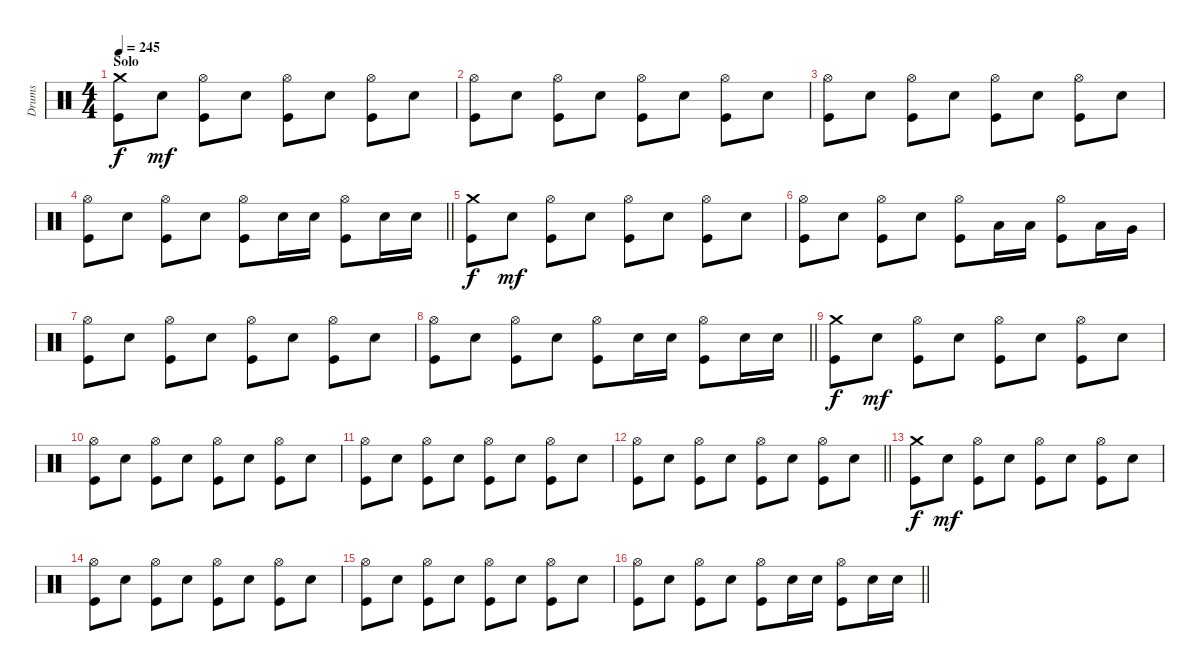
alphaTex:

\track ("Drums" "Drums") {instrument percussion}
\staff {score}
\articulation defaults
\ts (4 4)
\section ("" "Solo")
\tempo 245
\clef neutral
\ks c
("Crash medium (hit)" "Kick (hit)").8{dy f} "Snare (hit) 2".8{dy mf} ("Hi-Hat (open)" "Kick (hit)").8 "Snare (hit) 2".8 ("Hi-Hat (open)" "Kick (hit)").8 "Snare (hit) 2".8 ("Hi-Hat (open)" "Kick (hit)").8 "Snare (hit) 2".8 |
("Hi-Hat (open)" "Kick (hit)").8 "Snare (hit) 2".8 ("Hi-Hat (open)" "Kick (hit)").8 "Snare (hit) 2".8 ("Hi-Hat (open)" "Kick (hit)").8 "Snare (hit) 2".8 ("Hi-Hat (open)" "Kick (hit)").8 "Snare (hit) 2".8 |
("Hi-Hat (open)" "Kick (hit)").8 "Snare (hit) 2".8 ("Hi-Hat (open)" "Kick (hit)").8 "Snare (hit) 2".8 ("Hi-Hat (open)" "Kick (hit)").8 "Snare (hit) 2".8 ("Hi-Hat (open)" "Kick (hit)").8 "Snare (hit) 2".8 |
\barLineRight lightlight
("Hi-Hat (open)" "Kick (hit)").8 "Snare (hit) 2".8 ("Hi-Hat (open)" "Kick (hit)").8 "Snare (hit) 2".8 ("Hi-Hat (open)" "Kick (hit)").8 "Snare (hit) 2".16 "Snare (hit) 2".16 ("Hi-Hat (open)" "Kick (hit)").8 "Snare (hit) 2".16 "Snare (hit) 2".16 |
("Crash medium (hit)" "Kick (hit)").8{dy f} "Snare (hit) 2".8{dy mf} ("Hi-Hat (open)" "Kick (hit)").8 "Snare (hit) 2".8 ("Hi-Hat (open)" "Kick (hit)").8 "Snare (hit) 2".8 ("Hi-Hat (open)" "Kick (hit)").8 "Snare (hit) 2".8 |
("Hi-Hat (open)" "Kick (hit)").8 "Snare (hit) 2".8 ("Hi-Hat (open)" "Kick (hit)").8 "Snare (hit) 2".8 ("Hi-Hat (open)" "Kick (hit)").8 "Low Tom (hit)".16 "Low Tom (hit)".16 ("Hi-Hat (open)" "Kick (hit)").8 "Low Tom (hit)".16 "Very Low Tom (hit)".16 |
("Hi-Hat (open)" "Kick (hit)").8 "Snare (hit) 2".8 ("Hi-Hat (open)" "Kick (hit)").8 "Snare (hit) 2".8 ("Hi-Hat (open)" "Kick (hit)").8 "Snare (hit) 2".8 ("Hi-Hat (open)" "Kick (hit)").8 "Snare (hit) 2".8 |
\barLineRight lightlight
("Hi-Hat (open)" "Kick (hit)").8 "Snare (hit) 2".8 ("Hi-Hat (open)" "Kick (hit)").8 "Snare (hit) 2".8 ("Hi-Hat (open)" "Kick (hit)").8 "Snare (hit) 2".16 "Snare (hit) 2".16 ("Hi-Hat (open)" "Kick (hit)").8 "Snare (hit) 2".16 "Snare (hit) 2".16 |
("Crash medium (hit)" "Kick (hit)").8{dy f} "Snare (hit) 2".8{dy mf} ("Hi-Hat (open)" "Kick (hit)").8 "Snare (hit) 2".8 ("Hi-Hat (open)" "Kick (hit)").8 "Snare (hit) 2".8 ("Hi-Hat (open)" "Kick (hit)").8 "Snare (hit) 2".8 |
("Hi-Hat (open)" "Kick (hit)").8 "Snare (hit) 2".8 ("Hi-Hat (open)" "Kick (hit)").8 "Snare (hit) 2".8 ("Hi-Hat (open)" "Kick (hit)").8 "Snare (hit) 2".8 ("Hi-Hat (open)" "Kick (hit)").8 "Snare (hit) 2".8 |
("Hi-Hat (open)" "Kick (hit)").8 "Snare (hit) 2".8 ("Hi-Hat (open)" "Kick (hit)").8 "Snare (hit) 2".8 ("Hi-Hat (open)" "Kick (hit)").8 "Snare (hit) 2".8 ("Hi-Hat (open)" "Kick (hit)").8 "Snare (hit) 2".8 |
\barLineRight lightlight
("Hi-Hat (open)" "Kick (hit)").8 "Snare (hit) 2".8 ("Hi-Hat (open)" "Kick (hit)").8 "Snare (hit) 2".8 ("Hi-Hat (open)" "Kick (hit)").8 "Snare (hit) 2".8 ("Hi-Hat (open)" "Kick (hit)").8 "Snare (hit) 2".8 |
("Crash medium (hit)" "Kick (hit)").8{dy f} "Snare (hit) 2".8{dy mf} ("Hi-Hat (open)" "Kick (hit)").8 "Snare (hit) 2".8 ("Hi-Hat (open)" "Kick (hit)").8 "Snare (hit) 2".8 ("Hi-Hat (open)" "Kick (hit)").8 "Snare (hit) 2".8 |
("Hi-Hat (open)" "Kick (hit)").8 "Snare (hit) 2".8 ("Hi-Hat (open)" "Kick (hit)").8 "Snare (hit) 2".8 ("Hi-Hat (open)" "Kick (hit)").8 "Snare (hit) 2".8 ("Hi-Hat (open)" "Kick (hit)").8 "Snare (hit) 2".8 |
("Hi-Hat (open)" "Kick (hit)").8 "Snare (hit) 2".8 ("Hi-Hat (open)" "Kick (hit)").8 "Snare (hit) 2".8 ("Hi-Hat (open)" "Kick (hit)").8 "Snare (hit) 2".8 ("Hi-Hat (open)" "Kick (hit)").8 "Snare (hit) 2".8 |
\barLineRight lightlight
("Hi-Hat (open)" "Kick (hit)").8 "Snare (hit) 2".8 ("Hi-Hat (open)" "Kick (hit)").8 "Snare (hit) 2".8 ("Hi-Hat (open)" "Kick (hit)").8 "Snare (hit) 2".16 "Snare (hit) 2".16 ("Hi-Hat (open)" "Kick (hit)").8 "Snare (hit) 2".16 "Snare (hit) 2".16
